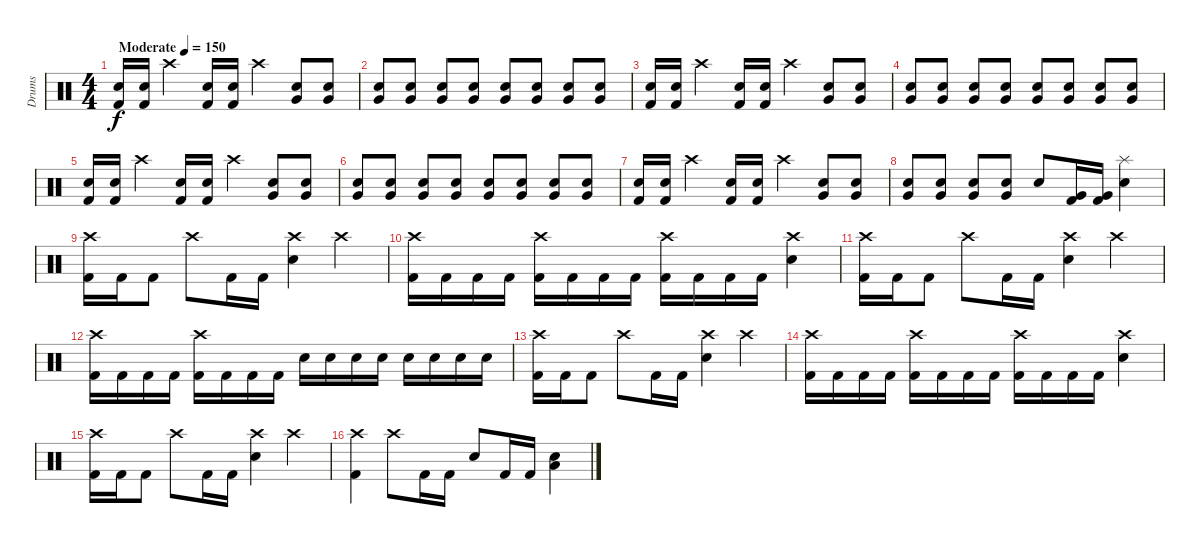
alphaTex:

\track ("Drums" "Drums") {instrument percussion}
\staff {score}
\articulation defaults
\ts (4 4)
\tempo (150 "Moderate")
\clef neutral
\ks c
("Electric Snare (hit)" "Kick (hit) 2").16{dy f} ("Electric Snare (hit)" "Kick (hit) 2").16 "Crash high (hit)".4 ("Electric Snare (hit)" "Kick (hit) 2").16 ("Electric Snare (hit)" "Kick (hit) 2").16 "Crash high (hit)".4 ("Very Low Tom (hit)" "Electric Snare (hit)").8 ("Very Low Tom (hit)" "Electric Snare (hit)").8 |
("Very Low Tom (hit)" "Electric Snare (hit)").8 ("Very Low Tom (hit)" "Electric Snare (hit)").8 ("Very Low Tom (hit)" "Electric Snare (hit)").8 ("Very Low Tom (hit)" "Electric Snare (hit)").8 ("Very Low Tom (hit)" "Electric Snare (hit)").8 ("Very Low Tom (hit)" "Electric Snare (hit)").8 ("Very Low Tom (hit)" "Electric Snare (hit)").8 ("Very Low Tom (hit)" "Electric Snare (hit)").8 |
("Electric Snare (hit)" "Kick (hit) 2").16 ("Electric Snare (hit)" "Kick (hit) 2").16 "Crash high (hit)".4 ("Electric Snare (hit)" "Kick (hit) 2").16 ("Electric Snare (hit)" "Kick (hit) 2").16 "Crash high (hit)".4 ("Very Low Tom (hit)" "Electric Snare (hit)").8 ("Very Low Tom (hit)" "Electric Snare (hit)").8 |
("Very Low Tom (hit)" "Electric Snare (hit)").8 ("Very Low Tom (hit)" "Electric Snare (hit)").8 ("Very Low Tom (hit)" "Electric Snare (hit)").8 ("Very Low Tom (hit)" "Electric Snare (hit)").8 ("Very Low Tom (hit)" "Electric Snare (hit)").8 ("Very Low Tom (hit)" "Electric Snare (hit)").8 ("Very Low Tom (hit)" "Electric Snare (hit)").8 ("Very Low Tom (hit)" "Electric Snare (hit)").8 |
("Electric Snare (hit)" "Kick (hit) 2").16 ("Electric Snare (hit)" "Kick (hit) 2").16 "Crash high (hit)".4 ("Electric Snare (hit)" "Kick (hit) 2").16 ("Electric Snare (hit)" "Kick (hit) 2").16 "Crash high (hit)".4 ("Very Low Tom (hit)" "Electric Snare (hit)").8 ("Very Low Tom (hit)" "Electric Snare (hit)").8 |
("Very Low Tom (hit)" "Electric Snare (hit)").8 ("Very Low Tom (hit)" "Electric Snare (hit)").8 ("Very Low Tom (hit)" "Electric Snare (hit)").8 ("Very Low Tom (hit)" "Electric Snare (hit)").8 ("Very Low Tom (hit)" "Electric Snare (hit)").8 ("Very Low Tom (hit)" "Electric Snare (hit)").8 ("Very Low Tom (hit)" "Electric Snare (hit)").8 ("Very Low Tom (hit)" "Electric Snare (hit)").8 |
("Electric Snare (hit)" "Kick (hit) 2").16 ("Electric Snare (hit)" "Kick (hit) 2").16 "Crash high (hit)".4 ("Electric Snare (hit)" "Kick (hit) 2").16 ("Electric Snare (hit)" "Kick (hit) 2").16 "Crash high (hit)".4 ("Very Low Tom (hit)" "Electric Snare (hit)").8 ("Very Low Tom (hit)" "Electric Snare (hit)").8 |
("Very Low Tom (hit)" "Electric Snare (hit)").8 ("Very Low Tom (hit)" "Electric Snare (hit)").8 ("Very Low Tom (hit)" "Electric Snare (hit)").8 ("Very Low Tom (hit)" "Electric Snare (hit)").8 "Electric Snare (hit)".8 ("Very Low Tom (hit)" "Kick (hit) 2").16 ("Very Low Tom (hit)" "Kick (hit) 2").16 ("Splash (hit)" "Electric Snare (hit)").4 |
("Crash high (hit)" "Kick (hit) 2").16 "Kick (hit) 2".16 "Kick (hit) 2".8 "Crash high (hit)".8 "Kick (hit) 2".16 "Kick (hit) 2".16 ("Crash high (hit)" "Electric Snare (hit)").4 "Crash high (hit)".4 |
("Crash high (hit)" "Kick (hit) 2").16 "Kick (hit) 2".16 "Kick (hit) 2".16 "Kick (hit) 2".16 ("Crash high (hit)" "Kick (hit) 2").16 "Kick (hit) 2".16 "Kick (hit) 2".16 "Kick (hit) 2".16 ("Crash high (hit)" "Kick (hit) 2").16 "Kick (hit) 2".16 "Kick (hit) 2".16 "Kick (hit) 2".16 ("Crash high (hit)" "Electric Snare (hit)").4 |
("Crash high (hit)" "Kick (hit) 2").16 "Kick (hit) 2".16 "Kick (hit) 2".8 "Crash high (hit)".8 "Kick (hit) 2".16 "Kick (hit) 2".16 ("Crash high (hit)" "Electric Snare (hit)").4 "Crash high (hit)".4 |
("Crash high (hit)" "Kick (hit) 2").16 "Kick (hit) 2".16 "Kick (hit) 2".16 "Kick (hit) 2".16 ("Crash high (hit)" "Kick (hit) 2").16 "Kick (hit) 2".16 "Kick (hit) 2".16 "Kick (hit) 2".16 "Electric Snare (hit)".16 "Electric Snare (hit)".16 "Electric Snare (hit)".16 "Electric Snare (hit)".16 "Electric Snare (hit)".16 "Electric Snare (hit)".16 "Electric Snare (hit)".16 "Electric Snare (hit)".16 |
("Crash high (hit)" "Kick (hit) 2").16 "Kick (hit) 2".16 "Kick (hit) 2".8 "Crash high (hit)".8 "Kick (hit) 2".16 "Kick (hit) 2".16 ("Crash high (hit)" "Electric Snare (hit)").4 "Crash high (hit)".4 |
("Crash high (hit)" "Kick (hit) 2").16 "Kick (hit) 2".16 "Kick (hit) 2".16 "Kick (hit) 2".16 ("Crash high (hit)" "Kick (hit) 2").16 "Kick (hit) 2".16 "Kick (hit) 2".16 "Kick (hit) 2".16 ("Crash high (hit)" "Kick (hit) 2").16 "Kick (hit) 2".16 "Kick (hit) 2".16 "Kick (hit) 2".16 ("Crash high (hit)" "Electric Snare (hit)").4 |
("Crash high (hit)" "Kick (hit) 2").16 "Kick (hit) 2".16 "Kick (hit) 2".8 "Crash high (hit)".8 "Kick (hit) 2".16 "Kick (hit) 2".16 ("Crash high (hit)" "Electric Snare (hit)").4 "Crash high (hit)".4 |
("Crash high (hit)" "Kick (hit) 2").4 "Crash high (hit)".8 "Kick (hit) 2".16 "Kick (hit) 2".16 "Electric Snare (hit)".8 "Kick (hit) 2".16 "Kick (hit) 2".16 ("Low Tom (hit)" "Electric Snare (hit)").4
